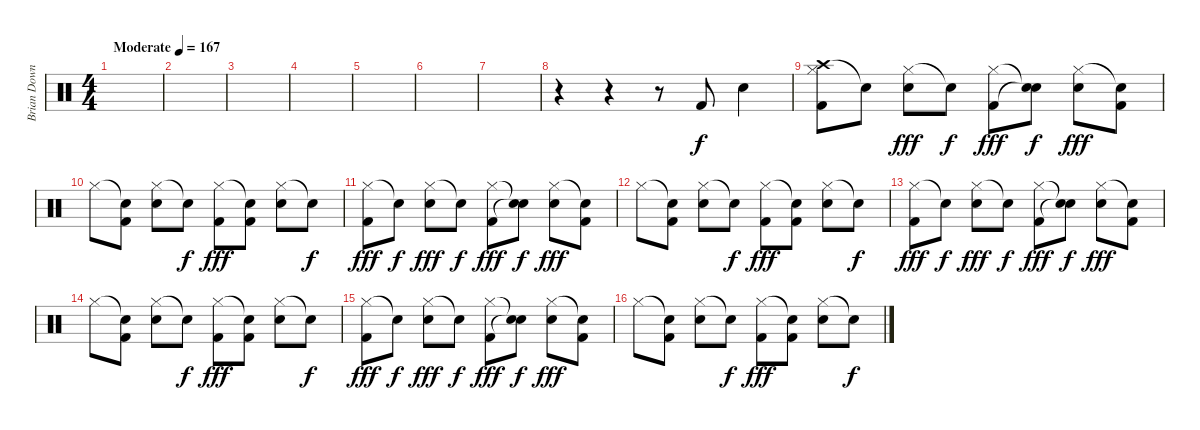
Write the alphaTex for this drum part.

\track ("Brian Downey" "Brian Down") {instrument percussion}
\staff {score}
\articulation defaults
\ts (4 4)
\tempo (167 "Moderate")
\clef neutral
\ks c
|
|
|
|
|
|
|
r.4 r.4 r.8 "Kick (hit) 2".8 "Electric Snare (hit)".4 |
("Crash high (hit)" "Hi-Hat (closed)" "Kick (hit) 2").8 "Snare (hit)"{t}.8{dy f} ("Hi-Hat (closed)" "Electric Snare (hit)").8{dy fff} "Snare (hit)"{t}.8{dy f} ("Hi-Hat (closed)" "Kick (hit) 2").8{dy fff} ("Snare (hit)"{t} "Electric Snare (hit)"{t}).8{dy f} ("Hi-Hat (closed)" "Electric Snare (hit)").8{dy fff} ("Snare (hit)"{t} "Kick (hit) 2").8 |
"Hi-Hat (closed)".8 ("Snare (hit)"{t} "Kick (hit) 2").8 ("Hi-Hat (closed)" "Electric Snare (hit)").8 "Snare (hit)"{t}.8{dy f} ("Hi-Hat (closed)" "Kick (hit) 2").8{dy fff} ("Snare (hit)"{t} "Kick (hit) 2").8 ("Hi-Hat (closed)" "Electric Snare (hit)").8 "Snare (hit)"{t}.8{dy f} |
("Hi-Hat (closed)" "Kick (hit) 2").8{dy fff} "Snare (hit)"{t}.8{dy f} ("Hi-Hat (closed)" "Electric Snare (hit)").8{dy fff} "Snare (hit)"{t}.8{dy f} ("Hi-Hat (closed)" "Kick (hit) 2").8{dy fff} ("Snare (hit)"{t} "Electric Snare (hit)"{t}).8{dy f} ("Hi-Hat (closed)" "Electric Snare (hit)").8{dy fff} ("Snare (hit)"{t} "Kick (hit) 2").8 |
"Hi-Hat (closed)".8 ("Snare (hit)"{t} "Kick (hit) 2").8 ("Hi-Hat (closed)" "Electric Snare (hit)").8 "Snare (hit)"{t}.8{dy f} ("Hi-Hat (closed)" "Kick (hit) 2").8{dy fff} ("Snare (hit)"{t} "Kick (hit) 2").8 ("Hi-Hat (closed)" "Electric Snare (hit)").8 "Snare (hit)"{t}.8{dy f} |
("Hi-Hat (closed)" "Kick (hit) 2").8{dy fff} "Snare (hit)"{t}.8{dy f} ("Hi-Hat (closed)" "Electric Snare (hit)").8{dy fff} "Snare (hit)"{t}.8{dy f} ("Hi-Hat (closed)" "Kick (hit) 2").8{dy fff} ("Snare (hit)"{t} "Electric Snare (hit)"{t}).8{dy f} ("Hi-Hat (closed)" "Electric Snare (hit)").8{dy fff} ("Snare (hit)"{t} "Kick (hit) 2").8 |
"Hi-Hat (closed)".8 ("Snare (hit)"{t} "Kick (hit) 2").8 ("Hi-Hat (closed)" "Electric Snare (hit)").8 "Snare (hit)"{t}.8{dy f} ("Hi-Hat (closed)" "Kick (hit) 2").8{dy fff} ("Snare (hit)"{t} "Kick (hit) 2").8 ("Hi-Hat (closed)" "Electric Snare (hit)").8 "Snare (hit)"{t}.8{dy f} |
("Hi-Hat (closed)" "Kick (hit) 2").8{dy fff} "Snare (hit)"{t}.8{dy f} ("Hi-Hat (closed)" "Electric Snare (hit)").8{dy fff} "Snare (hit)"{t}.8{dy f} ("Hi-Hat (closed)" "Kick (hit) 2").8{dy fff} ("Snare (hit)"{t} "Electric Snare (hit)"{t}).8{dy f} ("Hi-Hat (closed)" "Electric Snare (hit)").8{dy fff} ("Snare (hit)"{t} "Kick (hit) 2").8 |
"Hi-Hat (closed)".8 ("Snare (hit)"{t} "Kick (hit) 2").8 ("Hi-Hat (closed)" "Electric Snare (hit)").8 "Snare (hit)"{t}.8{dy f} ("Hi-Hat (closed)" "Kick (hit) 2").8{dy fff} ("Snare (hit)"{t} "Kick (hit) 2").8 ("Hi-Hat (closed)" "Electric Snare (hit)").8 "Snare (hit)"{t}.8{dy f}
